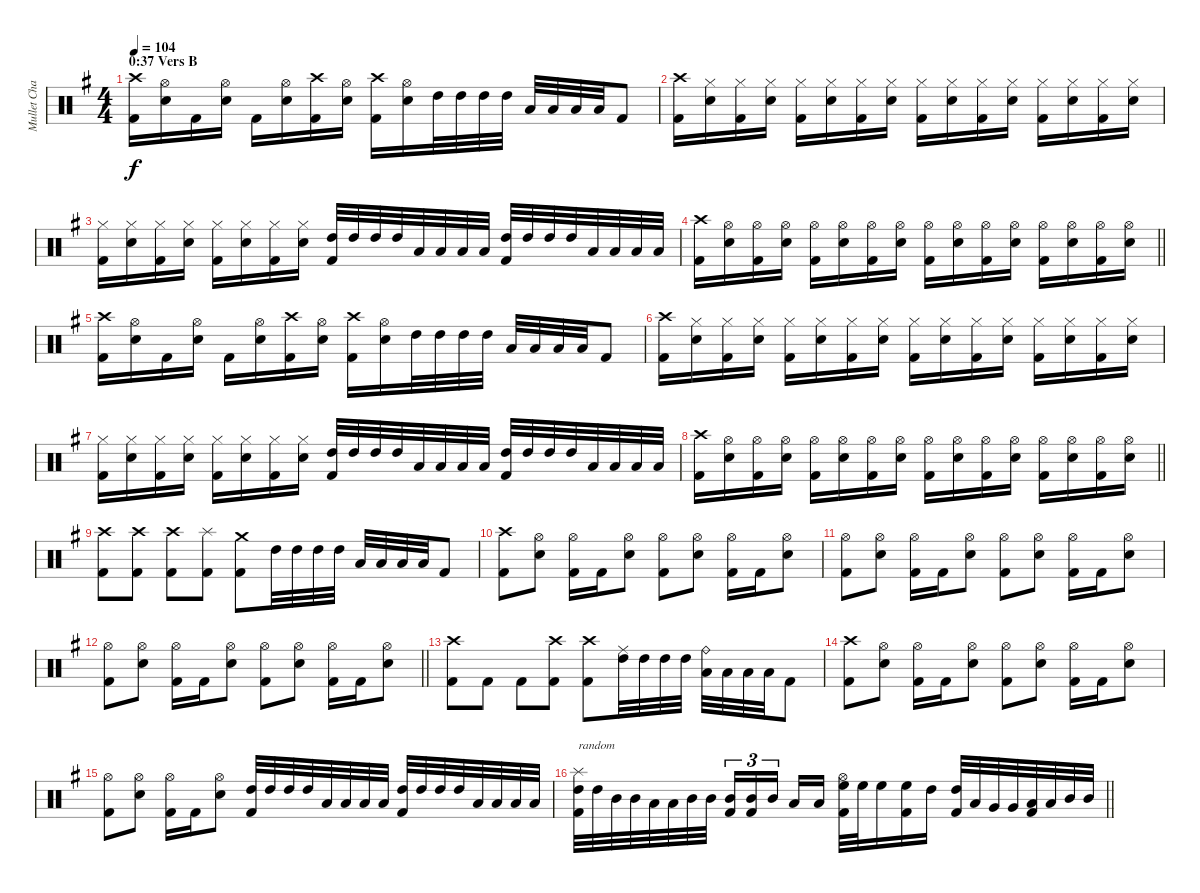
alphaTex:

\track ("Mullet Chad" "Mullet Cha") {instrument percussion}
\staff {score}
\articulation defaults
\ts (4 4)
\section ("" "0:37 Vers B")
\tempo 104
\clef neutral
\ks g
("Crash high (hit)" "Kick (hit) 2").16{dy f} ("Hi-Hat (open)" "Snare (hit) 2").16 "Kick (hit) 2".16 ("Hi-Hat (open)" "Snare (hit) 2").16 "Kick (hit) 2".16 ("Hi-Hat (open)" "Snare (hit) 2").16 ("Crash high (hit)" "Kick (hit) 2").16 ("Hi-Hat (open)" "Snare (hit) 2").16 ("Crash high (hit)" "Kick (hit) 2").16 ("Hi-Hat (open)" "Snare (hit) 2").16 "High Tom (hit)".32 "High Tom (hit)".32 "High Tom (hit)".32 "High Tom (hit)".32 "Low Tom (hit)".32 "Low Tom (hit)".32 "Low Tom (hit)".32 "Low Tom (hit)".32 "Kick (hit) 2".8 |
("Crash high (hit)" "Kick (hit) 2").16 ("Hi-Hat (closed)" "Snare (hit) 2").16 ("Hi-Hat (closed)" "Kick (hit) 2").16 ("Hi-Hat (closed)" "Snare (hit) 2").16 ("Hi-Hat (closed)" "Kick (hit) 2").16 ("Hi-Hat (closed)" "Snare (hit) 2").16 ("Hi-Hat (closed)" "Kick (hit) 2").16 ("Hi-Hat (closed)" "Snare (hit) 2").16 ("Hi-Hat (closed)" "Kick (hit) 2").16 ("Hi-Hat (closed)" "Snare (hit) 2").16 ("Hi-Hat (closed)" "Kick (hit) 2").16 ("Hi-Hat (closed)" "Snare (hit) 2").16 ("Hi-Hat (closed)" "Kick (hit) 2").16 ("Hi-Hat (closed)" "Snare (hit) 2").16 ("Hi-Hat (closed)" "Kick (hit) 2").16 ("Hi-Hat (closed)" "Snare (hit) 2").16 |
("Hi-Hat (closed)" "Kick (hit) 2").16 ("Hi-Hat (closed)" "Snare (hit) 2").16 ("Hi-Hat (closed)" "Kick (hit) 2").16 ("Hi-Hat (closed)" "Snare (hit) 2").16 ("Hi-Hat (closed)" "Kick (hit) 2").16 ("Hi-Hat (closed)" "Snare (hit) 2").16 ("Hi-Hat (closed)" "Kick (hit) 2").16 ("Hi-Hat (closed)" "Snare (hit) 2").16 ("High Tom (hit)" "Kick (hit) 2").32 "High Tom (hit)".32 "High Tom (hit)".32 "High Tom (hit)".32 "Low Tom (hit)".32 "Low Tom (hit)".32 "Low Tom (hit)".32 "Low Tom (hit)".32 ("High Tom (hit)" "Kick (hit) 2").32 "High Tom (hit)".32 "High Tom (hit)".32 "High Tom (hit)".32 "Low Tom (hit)".32 "Low Tom (hit)".32 "Low Tom (hit)".32 "Low Tom (hit)".32 |
\barLineRight lightlight
("Crash high (hit)" "Kick (hit) 2").16 ("Hi-Hat (open)" "Snare (hit) 2").16 ("Hi-Hat (open)" "Kick (hit) 2").16 ("Hi-Hat (open)" "Snare (hit) 2").16 ("Hi-Hat (open)" "Kick (hit) 2").16 ("Hi-Hat (open)" "Snare (hit) 2").16 ("Hi-Hat (open)" "Kick (hit) 2").16 ("Hi-Hat (open)" "Snare (hit) 2").16 ("Hi-Hat (open)" "Kick (hit) 2").16 ("Hi-Hat (open)" "Snare (hit) 2").16 ("Hi-Hat (open)" "Kick (hit) 2").16 ("Hi-Hat (open)" "Snare (hit) 2").16 ("Hi-Hat (open)" "Kick (hit) 2").16 ("Hi-Hat (open)" "Snare (hit) 2").16 ("Hi-Hat (open)" "Kick (hit) 2").16 ("Hi-Hat (open)" "Snare (hit) 2").16 |
("Crash high (hit)" "Kick (hit) 2").16 ("Hi-Hat (open)" "Snare (hit) 2").16 "Kick (hit) 2".16 ("Hi-Hat (open)" "Snare (hit) 2").16 "Kick (hit) 2".16 ("Hi-Hat (open)" "Snare (hit) 2").16 ("Crash high (hit)" "Kick (hit) 2").16 ("Hi-Hat (open)" "Snare (hit) 2").16 ("Crash high (hit)" "Kick (hit) 2").16 ("Hi-Hat (open)" "Snare (hit) 2").16 "High Tom (hit)".32 "High Tom (hit)".32 "High Tom (hit)".32 "High Tom (hit)".32 "Low Tom (hit)".32 "Low Tom (hit)".32 "Low Tom (hit)".32 "Low Tom (hit)".32 "Kick (hit) 2".8 |
("Crash high (hit)" "Kick (hit) 2").16 ("Hi-Hat (closed)" "Snare (hit) 2").16 ("Hi-Hat (closed)" "Kick (hit) 2").16 ("Hi-Hat (closed)" "Snare (hit) 2").16 ("Hi-Hat (closed)" "Kick (hit) 2").16 ("Hi-Hat (closed)" "Snare (hit) 2").16 ("Hi-Hat (closed)" "Kick (hit) 2").16 ("Hi-Hat (closed)" "Snare (hit) 2").16 ("Hi-Hat (closed)" "Kick (hit) 2").16 ("Hi-Hat (closed)" "Snare (hit) 2").16 ("Hi-Hat (closed)" "Kick (hit) 2").16 ("Hi-Hat (closed)" "Snare (hit) 2").16 ("Hi-Hat (closed)" "Kick (hit) 2").16 ("Hi-Hat (closed)" "Snare (hit) 2").16 ("Hi-Hat (closed)" "Kick (hit) 2").16 ("Hi-Hat (closed)" "Snare (hit) 2").16 |
("Hi-Hat (closed)" "Kick (hit) 2").16 ("Hi-Hat (closed)" "Snare (hit) 2").16 ("Hi-Hat (closed)" "Kick (hit) 2").16 ("Hi-Hat (closed)" "Snare (hit) 2").16 ("Hi-Hat (closed)" "Kick (hit) 2").16 ("Hi-Hat (closed)" "Snare (hit) 2").16 ("Hi-Hat (closed)" "Kick (hit) 2").16 ("Hi-Hat (closed)" "Snare (hit) 2").16 ("High Tom (hit)" "Kick (hit) 2").32 "High Tom (hit)".32 "High Tom (hit)".32 "High Tom (hit)".32 "Low Tom (hit)".32 "Low Tom (hit)".32 "Low Tom (hit)".32 "Low Tom (hit)".32 ("High Tom (hit)" "Kick (hit) 2").32 "High Tom (hit)".32 "High Tom (hit)".32 "High Tom (hit)".32 "Low Tom (hit)".32 "Low Tom (hit)".32 "Low Tom (hit)".32 "Low Tom (hit)".32 |
\barLineRight lightlight
("Crash high (hit)" "Kick (hit) 2").16 ("Hi-Hat (open)" "Snare (hit) 2").16 ("Hi-Hat (open)" "Kick (hit) 2").16 ("Hi-Hat (open)" "Snare (hit) 2").16 ("Hi-Hat (open)" "Kick (hit) 2").16 ("Hi-Hat (open)" "Snare (hit) 2").16 ("Hi-Hat (open)" "Kick (hit) 2").16 ("Hi-Hat (open)" "Snare (hit) 2").16 ("Hi-Hat (open)" "Kick (hit) 2").16 ("Hi-Hat (open)" "Snare (hit) 2").16 ("Hi-Hat (open)" "Kick (hit) 2").16 ("Hi-Hat (open)" "Snare (hit) 2").16 ("Hi-Hat (open)" "Kick (hit) 2").16 ("Hi-Hat (open)" "Snare (hit) 2").16 ("Hi-Hat (open)" "Kick (hit) 2").16 ("Hi-Hat (open)" "Snare (hit) 2").16 |
("Crash high (hit)" "Kick (hit) 2").8 ("Crash high (hit)" "Kick (hit) 2").8 ("Crash high (hit)" "Kick (hit) 2").8 ("Splash (hit)" "Kick (hit) 2").8 ("Crash medium (hit)" "Kick (hit) 2").8 "High Tom (hit)".32 "High Tom (hit)".32 "High Tom (hit)".32 "High Tom (hit)".32 "Low Tom (hit)".32 "Low Tom (hit)".32 "Low Tom (hit)".32 "Low Tom (hit)".32 "Kick (hit) 2".8 |
("Crash high (hit)" "Kick (hit) 2").8 ("Hi-Hat (open)" "Snare (hit) 2").8 ("Hi-Hat (open)" "Kick (hit) 2").16 "Kick (hit) 2".16 ("Hi-Hat (open)" "Snare (hit) 2").8 ("Hi-Hat (open)" "Kick (hit) 2").8 ("Hi-Hat (open)" "Snare (hit) 2").8 ("Hi-Hat (open)" "Kick (hit) 2").16 "Kick (hit) 2".16 ("Hi-Hat (open)" "Snare (hit) 2").8 |
("Hi-Hat (open)" "Kick (hit) 2").8 ("Hi-Hat (open)" "Snare (hit) 2").8 ("Hi-Hat (open)" "Kick (hit) 2").16 "Kick (hit) 2".16 ("Hi-Hat (open)" "Snare (hit) 2").8 ("Hi-Hat (open)" "Kick (hit) 2").8 ("Hi-Hat (open)" "Snare (hit) 2").8 ("Hi-Hat (open)" "Kick (hit) 2").16 "Kick (hit) 2".16 ("Hi-Hat (open)" "Snare (hit) 2").8 |
\barLineRight lightlight
("Hi-Hat (open)" "Kick (hit) 2").8 ("Hi-Hat (open)" "Snare (hit) 2").8 ("Hi-Hat (open)" "Kick (hit) 2").16 "Kick (hit) 2".16 ("Hi-Hat (open)" "Snare (hit) 2").8 ("Hi-Hat (open)" "Kick (hit) 2").8 ("Hi-Hat (open)" "Snare (hit) 2").8 ("Hi-Hat (open)" "Kick (hit) 2").16 "Kick (hit) 2".16 ("Hi-Hat (open)" "Snare (hit) 2").8 |
("Crash high (hit)" "Kick (hit) 2").8 "Kick (hit) 2".8 "Kick (hit) 2".8 ("Crash high (hit)" "Kick (hit) 2").8 ("Crash high (hit)" "Kick (hit) 2").8 ("Ride (middle)" "High Tom (hit)").32 "High Tom (hit)".32 "High Tom (hit)".32 "High Tom (hit)".32 ("Ride (bell)" "Low Tom (hit)").32 "Low Tom (hit)".32 "Low Tom (hit)".32 "Low Tom (hit)".32 "Kick (hit) 2".8 |
("Crash high (hit)" "Kick (hit) 2").8 ("Hi-Hat (open)" "Snare (hit) 2").8 ("Hi-Hat (open)" "Kick (hit) 2").16 "Kick (hit) 2".16 ("Hi-Hat (open)" "Snare (hit) 2").8 ("Hi-Hat (open)" "Kick (hit) 2").8 ("Hi-Hat (open)" "Snare (hit) 2").8 ("Hi-Hat (open)" "Kick (hit) 2").16 "Kick (hit) 2".16 ("Hi-Hat (open)" "Snare (hit) 2").8 |
("Hi-Hat (open)" "Kick (hit) 2").8 ("Hi-Hat (open)" "Snare (hit) 2").8 ("Hi-Hat (open)" "Kick (hit) 2").16 "Kick (hit) 2".16 ("Hi-Hat (open)" "Snare (hit) 2").8 ("High Tom (hit)" "Kick (hit) 2").32 "High Tom (hit)".32 "High Tom (hit)".32 "High Tom (hit)".32 "Low Tom (hit)".32 "Low Tom (hit)".32 "Low Tom (hit)".32 "Low Tom (hit)".32 ("High Tom (hit)" "Kick (hit) 2").32 "High Tom (hit)".32 "High Tom (hit)".32 "High Tom (hit)".32 "Low Tom (hit)".32 "Low Tom (hit)".32 "Low Tom (hit)".32 "Low Tom (hit)".32 |
\barLineRight lightlight
("Splash (hit)" "High Tom (hit)" "Kick (hit) 2").32{txt "random"} "High Tom (hit)".32 "Mid Tom (hit)".32 "Mid Tom (hit)".32 "Low Tom (hit)".32 "Low Tom (hit)".32 "Mid Tom (hit)".32 "Mid Tom (hit)".32 ("Mid Tom (hit)" "Kick (hit) 2").16{tu (3 2)} ("Mid Tom (hit)" "Kick (hit) 2").16{tu (3 2)} "Mid Tom (hit)".16{tu (3 2) beam splitsecondary} "Low Tom (hit)".16 "Low Tom (hit)".16 ("Hi-Hat (open)" "High Floor Tom (hit)" "Kick (hit) 2").32 "High Floor Tom (hit)".32 "High Floor Tom (hit)".16 ("High Floor Tom (hit)" "Kick (hit) 2").16 "High Tom (hit)".16 ("High Tom (hit)" "Kick (hit) 2").32 "Low Tom (hit)".32 "Very Low Tom (hit)".32 "Very Low Tom (hit)".32 ("Low Tom (hit)" "Kick (hit) 2").32 "Low Tom (hit)".32 "Mid Tom (hit)".32 "Mid Tom (hit)".32
